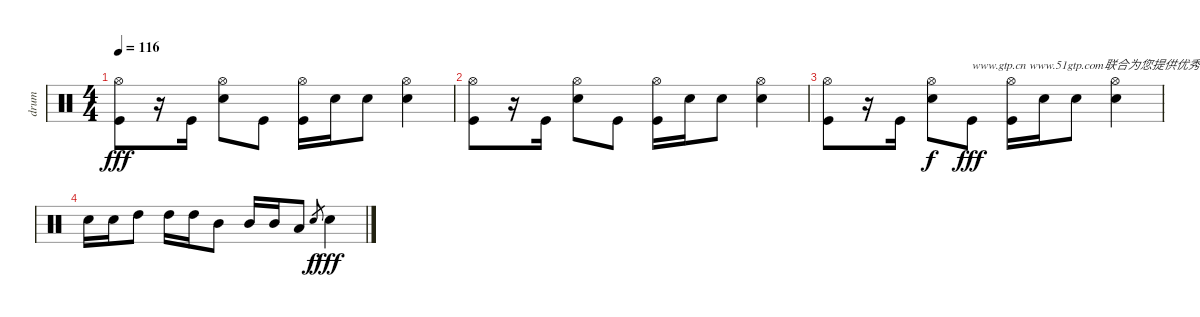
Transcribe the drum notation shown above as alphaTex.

\track ("drum" "drum") {instrument percussion}
\staff {score}
\articulation defaults
\ts (4 4)
\tempo 116
\clef neutral
\ks c
("Hi-Hat (open)" "Kick (hit)").8{dy fff} r.16 "Kick (hit)".16 ("Hi-Hat (open)" "Metronome (bell)").8 "Kick (hit)".8 ("Hi-Hat (open)" "Kick (hit)").16 "Metronome (bell)".16 "Metronome (bell)".8 ("Hi-Hat (open)" "Metronome (bell)").4 |
("Hi-Hat (open)" "Kick (hit)").8 r.16 "Kick (hit)".16 ("Hi-Hat (open)" "Metronome (bell)").8 "Kick (hit)".8 ("Hi-Hat (open)" "Kick (hit)").16 "Metronome (bell)".16 "Metronome (bell)".8 ("Hi-Hat (open)" "Metronome (bell)").4 |
("Hi-Hat (open)" "Kick (hit)").8 r.16 "Kick (hit)".16 ("Hi-Hat (open)" "Metronome (bell)").8{dy f} "Kick (hit)".8{txt "www.gtp.cn www.51gtp.com联合为您提供优秀的GTP!" dy fff} ("Hi-Hat (open)" "Kick (hit)").16 "Metronome (bell)".16 "Metronome (bell)".8 ("Hi-Hat (open)" "Metronome (bell)").4 |
"Metronome (bell)".16 "Metronome (bell)".16 "High Tom (hit)".8 "High Tom (hit)".16 "High Tom (hit)".16 "Mid Tom (hit)".8 "Mid Tom (hit)".16 "Mid Tom (hit)".16 "Low Tom (hit)".8 "Metronome (bell)".8{gr dy f} "Metronome (bell)".4{dy fff}
